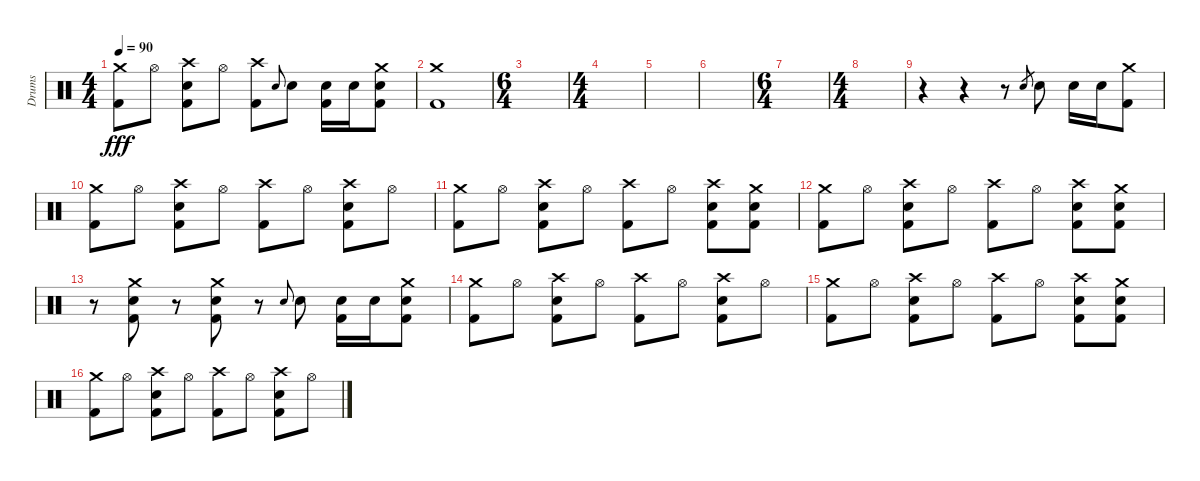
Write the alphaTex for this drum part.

\track ("Drums" "Drums") {instrument percussion}
\staff {score}
\articulation defaults
\ts (4 4)
\tempo 90
\clef neutral
\ks c
("Crash medium (hit)" "Kick (hit) 2").8{dy fff} "Hi-Hat (open)".8 ("Crash high (hit)" "Snare (hit) 2" "Kick (hit) 2").8 "Hi-Hat (open)".8 ("Crash high (hit)" "Kick (hit) 2").8 "Electric Snare (hit)".8{gr onbeat} "Electric Snare (hit)".8 ("Electric Snare (hit)" "Kick (hit) 2").16 "Electric Snare (hit)".16 ("Crash medium (hit)" "Snare (hit) 2" "Kick (hit) 2").8 |
("Crash medium (hit)" "Kick (hit) 2").1 |
\ts (6 4)
|
\ts (4 4)
|
|
|
\ts (6 4)
|
\ts (4 4)
|
r.4 r.4 r.8 "Electric Snare (hit)".8{gr} "Electric Snare (hit)".8 "Electric Snare (hit)".16 "Electric Snare (hit)".16 ("Crash medium (hit)" "Kick (hit) 2").8 |
("Crash medium (hit)" "Kick (hit) 2").8 "Hi-Hat (open)".8 ("Crash high (hit)" "Snare (hit) 2" "Kick (hit) 2").8 "Hi-Hat (open)".8 ("Crash high (hit)" "Kick (hit) 2").8 "Hi-Hat (open)".8 ("Crash high (hit)" "Snare (hit) 2" "Kick (hit) 2").8 "Hi-Hat (open)".8 |
("Crash medium (hit)" "Kick (hit) 2").8 "Hi-Hat (open)".8 ("Crash high (hit)" "Snare (hit) 2" "Kick (hit) 2").8 "Hi-Hat (open)".8 ("Crash high (hit)" "Kick (hit) 2").8 "Hi-Hat (open)".8 ("Crash high (hit)" "Snare (hit) 2" "Kick (hit) 2").8 ("Crash medium (hit)" "Snare (hit) 2" "Kick (hit) 2").8 |
("Crash medium (hit)" "Kick (hit) 2").8 "Hi-Hat (open)".8 ("Crash high (hit)" "Snare (hit) 2" "Kick (hit) 2").8 "Hi-Hat (open)".8 ("Crash high (hit)" "Kick (hit) 2").8 "Hi-Hat (open)".8 ("Crash high (hit)" "Snare (hit) 2" "Kick (hit) 2").8 ("Crash medium (hit)" "Snare (hit) 2" "Kick (hit) 2").8 |
r.8 ("Crash medium (hit)" "Snare (hit) 2" "Kick (hit) 2").8 r.8 ("Crash medium (hit)" "Snare (hit) 2" "Kick (hit) 2").8 r.8 "Electric Snare (hit)".8{gr onbeat} "Electric Snare (hit)".8 ("Electric Snare (hit)" "Kick (hit) 2").16 "Electric Snare (hit)".16 ("Crash medium (hit)" "Snare (hit) 2" "Kick (hit) 2").8 |
("Crash medium (hit)" "Kick (hit) 2").8 "Hi-Hat (open)".8 ("Crash high (hit)" "Snare (hit) 2" "Kick (hit) 2").8 "Hi-Hat (open)".8 ("Crash high (hit)" "Kick (hit) 2").8 "Hi-Hat (open)".8 ("Crash high (hit)" "Snare (hit) 2" "Kick (hit) 2").8 "Hi-Hat (open)".8 |
("Crash medium (hit)" "Kick (hit) 2").8 "Hi-Hat (open)".8 ("Crash high (hit)" "Snare (hit) 2" "Kick (hit) 2").8 "Hi-Hat (open)".8 ("Crash high (hit)" "Kick (hit) 2").8 "Hi-Hat (open)".8 ("Crash high (hit)" "Snare (hit) 2" "Kick (hit) 2").8 ("Crash medium (hit)" "Snare (hit) 2" "Kick (hit) 2").8 |
("Crash medium (hit)" "Kick (hit) 2").8 "Hi-Hat (open)".8 ("Crash high (hit)" "Snare (hit) 2" "Kick (hit) 2").8 "Hi-Hat (open)".8 ("Crash high (hit)" "Kick (hit) 2").8 "Hi-Hat (open)".8 ("Crash high (hit)" "Snare (hit) 2" "Kick (hit) 2").8 "Hi-Hat (open)".8
